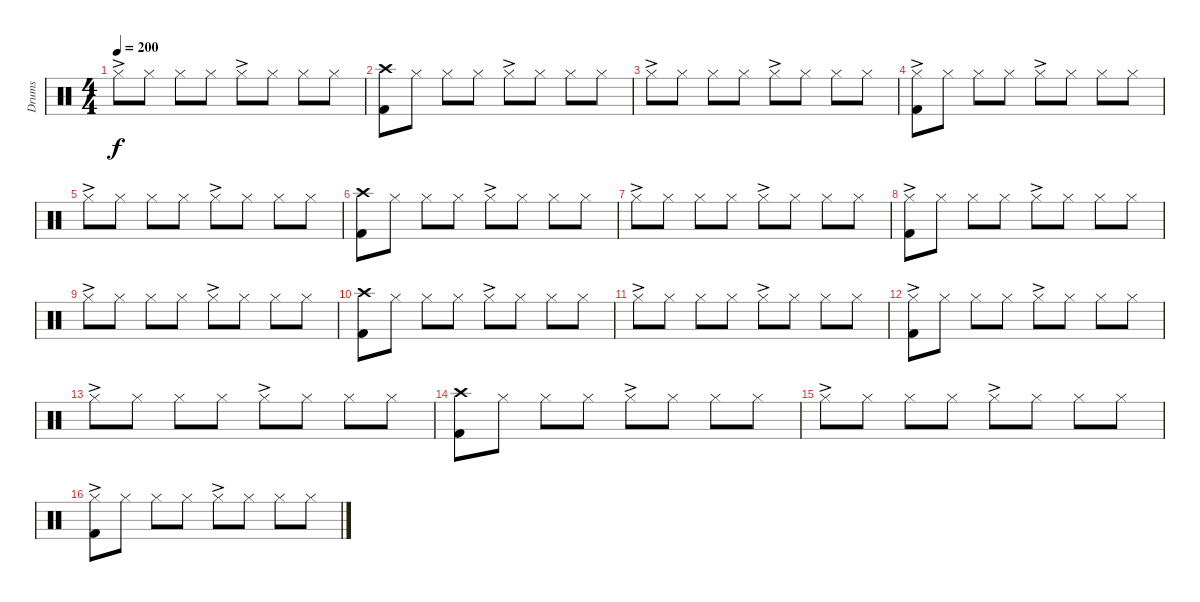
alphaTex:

\track ("Drums" "Drums") {instrument percussion}
\staff {score}
\articulation defaults
\ts (4 4)
\tempo 200
\clef neutral
\ks c "Hi-Hat (closed)"{ac}.8{dy f} "Hi-Hat (closed)".8 "Hi-Hat (closed)".8 "Hi-Hat (closed)".8 "Hi-Hat (closed)"{ac}.8 "Hi-Hat (closed)".8 "Hi-Hat (closed)".8 "Hi-Hat (closed)".8
|
("Crash high (hit)" "Kick (hit) 2").8 "Hi-Hat (closed)".8 "Hi-Hat (closed)".8 "Hi-Hat (closed)".8 "Hi-Hat (closed)"{ac}.8 "Hi-Hat (closed)".8 "Hi-Hat (closed)".8 "Hi-Hat (closed)".8 |
"Hi-Hat (closed)"{ac}.8 "Hi-Hat (closed)".8 "Hi-Hat (closed)".8 "Hi-Hat (closed)".8 "Hi-Hat (closed)"{ac}.8 "Hi-Hat (closed)".8 "Hi-Hat (closed)".8 "Hi-Hat (closed)".8 |
("Hi-Hat (closed)"{ac} "Kick (hit) 2").8 "Hi-Hat (closed)".8 "Hi-Hat (closed)".8 "Hi-Hat (closed)".8 "Hi-Hat (closed)"{ac}.8 "Hi-Hat (closed)".8 "Hi-Hat (closed)".8 "Hi-Hat (closed)".8 |
"Hi-Hat (closed)"{ac}.8 "Hi-Hat (closed)".8 "Hi-Hat (closed)".8 "Hi-Hat (closed)".8 "Hi-Hat (closed)"{ac}.8 "Hi-Hat (closed)".8 "Hi-Hat (closed)".8 "Hi-Hat (closed)".8 |
("Crash high (hit)" "Kick (hit) 2").8 "Hi-Hat (closed)".8 "Hi-Hat (closed)".8 "Hi-Hat (closed)".8 "Hi-Hat (closed)"{ac}.8 "Hi-Hat (closed)".8 "Hi-Hat (closed)".8 "Hi-Hat (closed)".8 |
"Hi-Hat (closed)"{ac}.8 "Hi-Hat (closed)".8 "Hi-Hat (closed)".8 "Hi-Hat (closed)".8 "Hi-Hat (closed)"{ac}.8 "Hi-Hat (closed)".8 "Hi-Hat (closed)".8 "Hi-Hat (closed)".8 |
("Hi-Hat (closed)"{ac} "Kick (hit) 2").8 "Hi-Hat (closed)".8 "Hi-Hat (closed)".8 "Hi-Hat (closed)".8 "Hi-Hat (closed)"{ac}.8 "Hi-Hat (closed)".8 "Hi-Hat (closed)".8 "Hi-Hat (closed)".8 |
"Hi-Hat (closed)"{ac}.8 "Hi-Hat (closed)".8 "Hi-Hat (closed)".8 "Hi-Hat (closed)".8 "Hi-Hat (closed)"{ac}.8 "Hi-Hat (closed)".8 "Hi-Hat (closed)".8 "Hi-Hat (closed)".8 |
("Crash high (hit)" "Kick (hit) 2").8 "Hi-Hat (closed)".8 "Hi-Hat (closed)".8 "Hi-Hat (closed)".8 "Hi-Hat (closed)"{ac}.8 "Hi-Hat (closed)".8 "Hi-Hat (closed)".8 "Hi-Hat (closed)".8 |
"Hi-Hat (closed)"{ac}.8 "Hi-Hat (closed)".8 "Hi-Hat (closed)".8 "Hi-Hat (closed)".8 "Hi-Hat (closed)"{ac}.8 "Hi-Hat (closed)".8 "Hi-Hat (closed)".8 "Hi-Hat (closed)".8 |
("Hi-Hat (closed)"{ac} "Kick (hit) 2").8 "Hi-Hat (closed)".8 "Hi-Hat (closed)".8 "Hi-Hat (closed)".8 "Hi-Hat (closed)"{ac}.8 "Hi-Hat (closed)".8 "Hi-Hat (closed)".8 "Hi-Hat (closed)".8 |
"Hi-Hat (closed)"{ac}.8 "Hi-Hat (closed)".8 "Hi-Hat (closed)".8 "Hi-Hat (closed)".8 "Hi-Hat (closed)"{ac}.8 "Hi-Hat (closed)".8 "Hi-Hat (closed)".8 "Hi-Hat (closed)".8 |
("Crash high (hit)" "Kick (hit) 2").8 "Hi-Hat (closed)".8 "Hi-Hat (closed)".8 "Hi-Hat (closed)".8 "Hi-Hat (closed)"{ac}.8 "Hi-Hat (closed)".8 "Hi-Hat (closed)".8 "Hi-Hat (closed)".8 |
"Hi-Hat (closed)"{ac}.8 "Hi-Hat (closed)".8 "Hi-Hat (closed)".8 "Hi-Hat (closed)".8 "Hi-Hat (closed)"{ac}.8 "Hi-Hat (closed)".8 "Hi-Hat (closed)".8 "Hi-Hat (closed)".8 |
("Hi-Hat (closed)"{ac} "Kick (hit) 2").8 "Hi-Hat (closed)".8 "Hi-Hat (closed)".8 "Hi-Hat (closed)".8 "Hi-Hat (closed)"{ac}.8 "Hi-Hat (closed)".8 "Hi-Hat (closed)".8 "Hi-Hat (closed)".8
